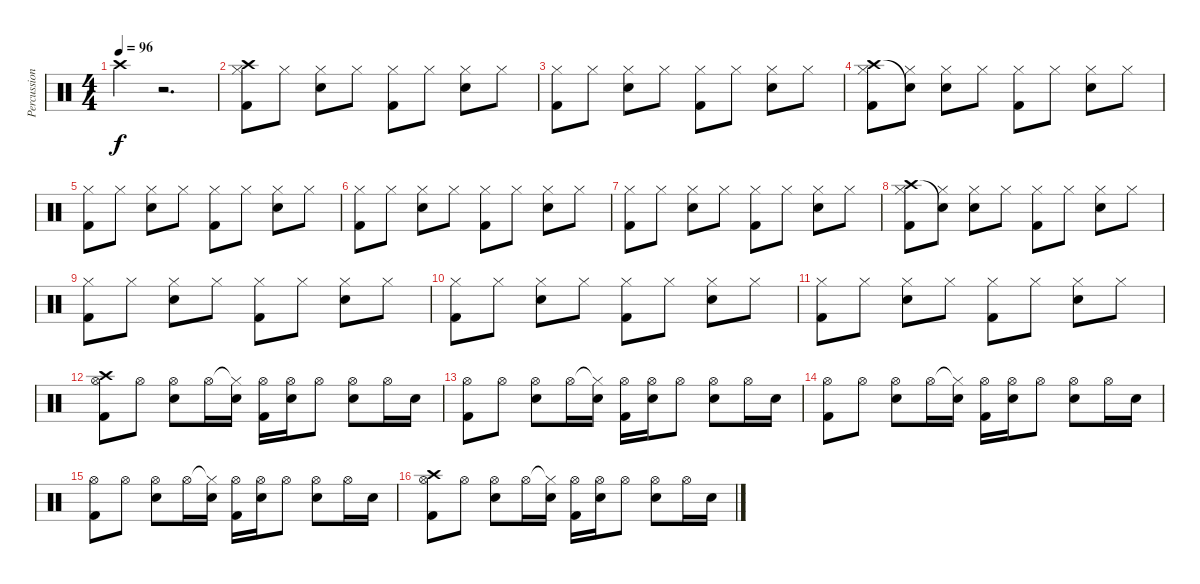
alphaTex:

\track ("Percussion" "Percussion") {instrument percussion}
\staff {score}
\articulation defaults
\ts (4 4)
\tempo 96
\clef neutral
\ks c "Crash high (hit)".4{dy f}
r.2{d} |
("Crash high (hit)" "Hi-Hat (closed)" "Kick (hit) 2").8 "Hi-Hat (closed)".8 ("Hi-Hat (closed)" "Snare (hit) 2").8 "Hi-Hat (closed)".8 ("Hi-Hat (closed)" "Kick (hit) 2").8 "Hi-Hat (closed)".8 ("Hi-Hat (closed)" "Snare (hit) 2").8 "Hi-Hat (closed)".8 |
("Hi-Hat (closed)" "Kick (hit) 2").8 "Hi-Hat (closed)".8 ("Hi-Hat (closed)" "Snare (hit) 2").8 "Hi-Hat (closed)".8 ("Hi-Hat (closed)" "Kick (hit) 2").8 "Hi-Hat (closed)".8 ("Hi-Hat (closed)" "Snare (hit) 2").8 "Hi-Hat (closed)".8 |
("Crash high (hit)" "Hi-Hat (closed)" "Kick (hit) 2").8 ("Snare (hit)"{t} "Hi-Hat (closed)").8 ("Hi-Hat (closed)" "Snare (hit) 2").8 "Hi-Hat (closed)".8 ("Hi-Hat (closed)" "Kick (hit) 2").8 "Hi-Hat (closed)".8 ("Hi-Hat (closed)" "Snare (hit) 2").8 "Hi-Hat (closed)".8 |
("Hi-Hat (closed)" "Kick (hit) 2").8 "Hi-Hat (closed)".8 ("Hi-Hat (closed)" "Snare (hit) 2").8 "Hi-Hat (closed)".8 ("Hi-Hat (closed)" "Kick (hit) 2").8 "Hi-Hat (closed)".8 ("Hi-Hat (closed)" "Snare (hit) 2").8 "Hi-Hat (closed)".8 |
("Hi-Hat (closed)" "Kick (hit) 2").8 "Hi-Hat (closed)".8 ("Hi-Hat (closed)" "Snare (hit) 2").8 "Hi-Hat (closed)".8 ("Hi-Hat (closed)" "Kick (hit) 2").8 "Hi-Hat (closed)".8 ("Hi-Hat (closed)" "Snare (hit) 2").8 "Hi-Hat (closed)".8 |
("Hi-Hat (closed)" "Kick (hit) 2").8 "Hi-Hat (closed)".8 ("Hi-Hat (closed)" "Snare (hit) 2").8 "Hi-Hat (closed)".8 ("Hi-Hat (closed)" "Kick (hit) 2").8 "Hi-Hat (closed)".8 ("Hi-Hat (closed)" "Snare (hit) 2").8 "Hi-Hat (closed)".8 |
("Crash high (hit)" "Hi-Hat (closed)" "Kick (hit) 2").8 ("Snare (hit)"{t} "Hi-Hat (closed)").8 ("Hi-Hat (closed)" "Snare (hit) 2").8 "Hi-Hat (closed)".8 ("Hi-Hat (closed)" "Kick (hit) 2").8 "Hi-Hat (closed)".8 ("Hi-Hat (closed)" "Snare (hit) 2").8 "Hi-Hat (closed)".8 |
("Hi-Hat (closed)" "Kick (hit) 2").8 "Hi-Hat (closed)".8 ("Hi-Hat (closed)" "Snare (hit) 2").8 "Hi-Hat (closed)".8 ("Hi-Hat (closed)" "Kick (hit) 2").8 "Hi-Hat (closed)".8 ("Hi-Hat (closed)" "Snare (hit) 2").8 "Hi-Hat (closed)".8 |
("Hi-Hat (closed)" "Kick (hit) 2").8 "Hi-Hat (closed)".8 ("Hi-Hat (closed)" "Snare (hit) 2").8 "Hi-Hat (closed)".8 ("Hi-Hat (closed)" "Kick (hit) 2").8 "Hi-Hat (closed)".8 ("Hi-Hat (closed)" "Snare (hit) 2").8 "Hi-Hat (closed)".8 |
("Hi-Hat (closed)" "Kick (hit) 2").8 "Hi-Hat (closed)".8 ("Hi-Hat (closed)" "Snare (hit) 2").8 "Hi-Hat (closed)".8 ("Hi-Hat (closed)" "Kick (hit) 2").8 "Hi-Hat (closed)".8 ("Hi-Hat (closed)" "Snare (hit) 2").8 "Hi-Hat (closed)".8 |
("Crash high (hit)" "Hi-Hat (open)" "Kick (hit) 2").8 "Hi-Hat (open)".8 ("Hi-Hat (open)" "Snare (hit) 2").8 "Hi-Hat (open)".16 ("Hi-Hat (closed)"{t} "Snare (hit) 2").16 ("Hi-Hat (open)" "Kick (hit) 2").16 ("Hi-Hat (open)" "Snare (hit) 2").16 "Hi-Hat (open)".8 ("Hi-Hat (open)" "Snare (hit) 2").8 "Hi-Hat (open)".16 "Snare (hit) 2".16 |
("Hi-Hat (open)" "Kick (hit) 2").8 "Hi-Hat (open)".8 ("Hi-Hat (open)" "Snare (hit) 2").8 "Hi-Hat (open)".16 ("Hi-Hat (closed)"{t} "Snare (hit) 2").16 ("Hi-Hat (open)" "Kick (hit) 2").16 ("Hi-Hat (open)" "Snare (hit) 2").16 "Hi-Hat (open)".8 ("Hi-Hat (open)" "Snare (hit) 2").8 "Hi-Hat (open)".16 "Snare (hit) 2".16 |
("Hi-Hat (open)" "Kick (hit) 2").8 "Hi-Hat (open)".8 ("Hi-Hat (open)" "Snare (hit) 2").8 "Hi-Hat (open)".16 ("Hi-Hat (closed)"{t} "Snare (hit) 2").16 ("Hi-Hat (open)" "Kick (hit) 2").16 ("Hi-Hat (open)" "Snare (hit) 2").16 "Hi-Hat (open)".8 ("Hi-Hat (open)" "Snare (hit) 2").8 "Hi-Hat (open)".16 "Snare (hit) 2".16 |
("Hi-Hat (open)" "Kick (hit) 2").8 "Hi-Hat (open)".8 ("Hi-Hat (open)" "Snare (hit) 2").8 "Hi-Hat (open)".16 ("Hi-Hat (closed)"{t} "Snare (hit) 2").16 ("Hi-Hat (open)" "Kick (hit) 2").16 ("Hi-Hat (open)" "Snare (hit) 2").16 "Hi-Hat (open)".8 ("Hi-Hat (open)" "Snare (hit) 2").8 "Hi-Hat (open)".16 "Snare (hit) 2".16 |
("Crash high (hit)" "Hi-Hat (open)" "Kick (hit) 2").8 "Hi-Hat (open)".8 ("Hi-Hat (open)" "Snare (hit) 2").8 "Hi-Hat (open)".16 ("Hi-Hat (closed)"{t} "Snare (hit) 2").16 ("Hi-Hat (open)" "Kick (hit) 2").16 ("Hi-Hat (open)" "Snare (hit) 2").16 "Hi-Hat (open)".8 ("Hi-Hat (open)" "Snare (hit) 2").8 "Hi-Hat (open)".16 "Snare (hit) 2".16
